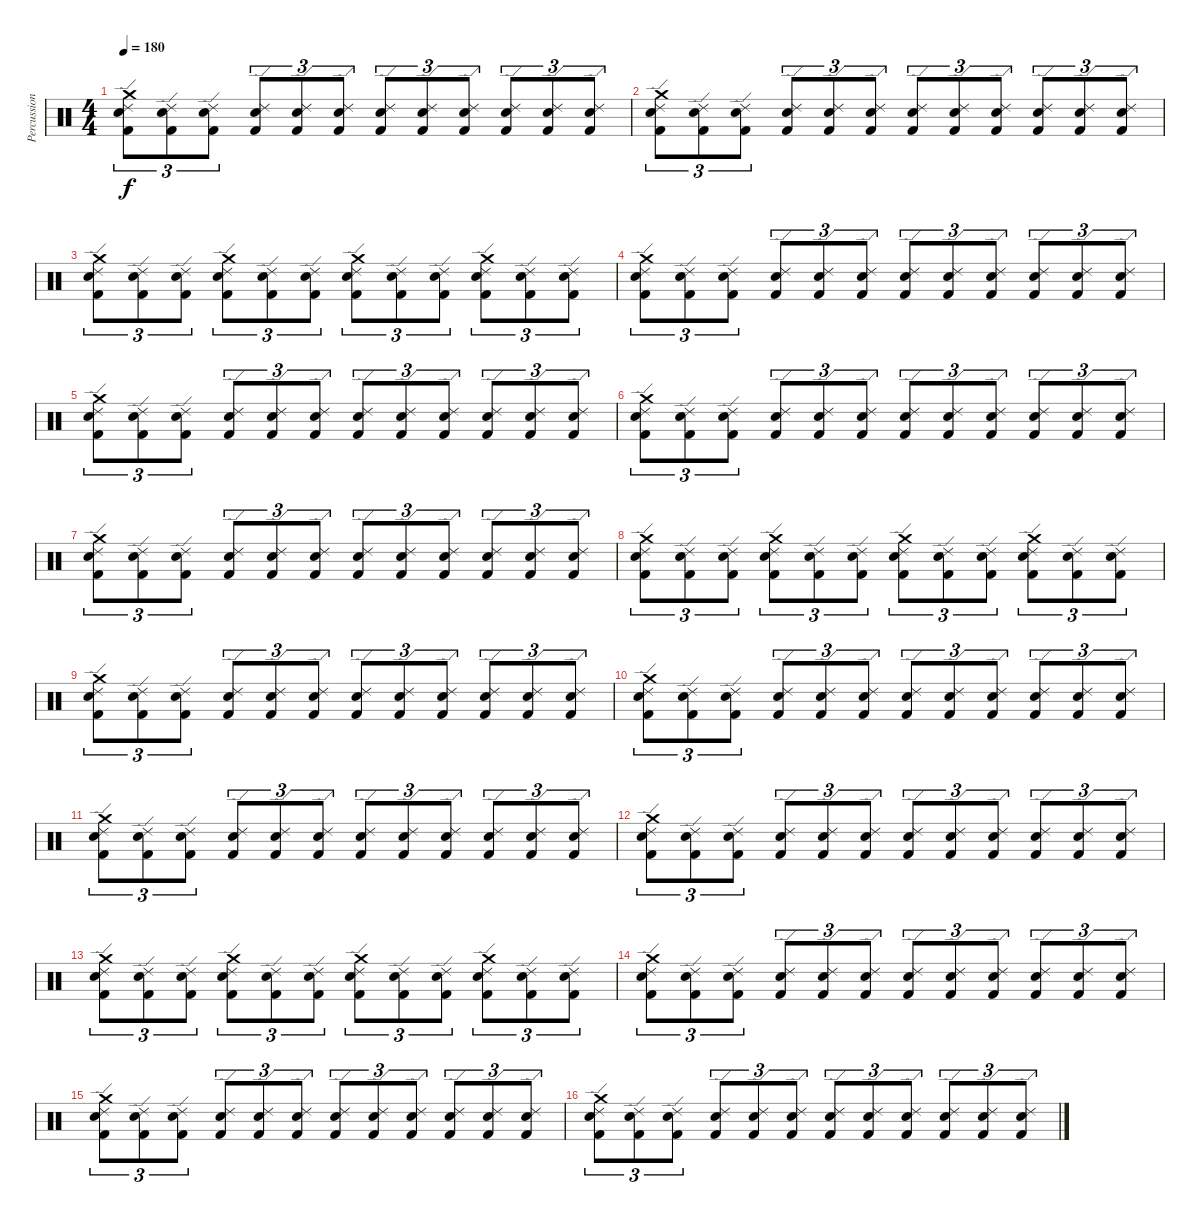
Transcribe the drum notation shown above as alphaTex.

\track ("Percussioni" "Percussion") {instrument percussion}
\staff {score}
\articulation defaults
\ts (4 4)
\tempo 180
\clef neutral
\ks c
("Crash medium (hit)" "Ride (edge) 2" "Snare (hit) 2" "Kick (hit) 2").8{tu (3 2) dy f} ("Ride (edge) 2" "Snare (hit) 2" "Kick (hit) 2").8{tu (3 2)} ("Ride (edge) 2" "Snare (hit) 2" "Kick (hit) 2").8{tu (3 2)} ("Ride (edge) 2" "Snare (hit) 2" "Kick (hit) 2").8{tu (3 2)} ("Ride (edge) 2" "Snare (hit) 2" "Kick (hit) 2").8{tu (3 2)} ("Ride (edge) 2" "Snare (hit) 2" "Kick (hit) 2").8{tu (3 2)} ("Ride (edge) 2" "Snare (hit) 2" "Kick (hit) 2").8{tu (3 2)} ("Ride (edge) 2" "Snare (hit) 2" "Kick (hit) 2").8{tu (3 2)} ("Ride (edge) 2" "Snare (hit) 2" "Kick (hit) 2").8{tu (3 2)} ("Ride (edge) 2" "Snare (hit) 2" "Kick (hit) 2").8{tu (3 2)} ("Ride (edge) 2" "Snare (hit) 2" "Kick (hit) 2").8{tu (3 2)} ("Ride (edge) 2" "Snare (hit) 2" "Kick (hit) 2").8{tu (3 2)} |
("Crash medium (hit)" "Ride (edge) 2" "Snare (hit) 2" "Kick (hit) 2").8{tu (3 2)} ("Ride (edge) 2" "Snare (hit) 2" "Kick (hit) 2").8{tu (3 2)} ("Ride (edge) 2" "Snare (hit) 2" "Kick (hit) 2").8{tu (3 2)} ("Ride (edge) 2" "Snare (hit) 2" "Kick (hit) 2").8{tu (3 2)} ("Ride (edge) 2" "Snare (hit) 2" "Kick (hit) 2").8{tu (3 2)} ("Ride (edge) 2" "Snare (hit) 2" "Kick (hit) 2").8{tu (3 2)} ("Ride (edge) 2" "Snare (hit) 2" "Kick (hit) 2").8{tu (3 2)} ("Ride (edge) 2" "Snare (hit) 2" "Kick (hit) 2").8{tu (3 2)} ("Ride (edge) 2" "Snare (hit) 2" "Kick (hit) 2").8{tu (3 2)} ("Ride (edge) 2" "Snare (hit) 2" "Kick (hit) 2").8{tu (3 2)} ("Ride (edge) 2" "Snare (hit) 2" "Kick (hit) 2").8{tu (3 2)} ("Ride (edge) 2" "Snare (hit) 2" "Kick (hit) 2").8{tu (3 2)} |
("Crash medium (hit)" "Ride (edge) 2" "Snare (hit) 2" "Kick (hit) 2").8{tu (3 2)} ("Ride (edge) 2" "Snare (hit) 2" "Kick (hit) 2").8{tu (3 2)} ("Ride (edge) 2" "Snare (hit) 2" "Kick (hit) 2").8{tu (3 2)} ("Crash medium (hit)" "Ride (edge) 2" "Snare (hit) 2" "Kick (hit) 2").8{tu (3 2)} ("Ride (edge) 2" "Snare (hit) 2" "Kick (hit) 2").8{tu (3 2)} ("Ride (edge) 2" "Snare (hit) 2" "Kick (hit) 2").8{tu (3 2)} ("Crash medium (hit)" "Ride (edge) 2" "Snare (hit) 2" "Kick (hit) 2").8{tu (3 2)} ("Ride (edge) 2" "Snare (hit) 2" "Kick (hit) 2").8{tu (3 2)} ("Ride (edge) 2" "Snare (hit) 2" "Kick (hit) 2").8{tu (3 2)} ("Crash medium (hit)" "Ride (edge) 2" "Snare (hit) 2" "Kick (hit) 2").8{tu (3 2)} ("Ride (edge) 2" "Snare (hit) 2" "Kick (hit) 2").8{tu (3 2)} ("Ride (edge) 2" "Snare (hit) 2" "Kick (hit) 2").8{tu (3 2)} |
("Crash medium (hit)" "Ride (edge) 2" "Snare (hit) 2" "Kick (hit) 2").8{tu (3 2)} ("Ride (edge) 2" "Snare (hit) 2" "Kick (hit) 2").8{tu (3 2)} ("Ride (edge) 2" "Snare (hit) 2" "Kick (hit) 2").8{tu (3 2)} ("Ride (edge) 2" "Snare (hit) 2" "Kick (hit) 2").8{tu (3 2)} ("Ride (edge) 2" "Snare (hit) 2" "Kick (hit) 2").8{tu (3 2)} ("Ride (edge) 2" "Snare (hit) 2" "Kick (hit) 2").8{tu (3 2)} ("Ride (edge) 2" "Snare (hit) 2" "Kick (hit) 2").8{tu (3 2)} ("Ride (edge) 2" "Snare (hit) 2" "Kick (hit) 2").8{tu (3 2)} ("Ride (edge) 2" "Snare (hit) 2" "Kick (hit) 2").8{tu (3 2)} ("Ride (edge) 2" "Snare (hit) 2" "Kick (hit) 2").8{tu (3 2)} ("Ride (edge) 2" "Snare (hit) 2" "Kick (hit) 2").8{tu (3 2)} ("Ride (edge) 2" "Snare (hit) 2" "Kick (hit) 2").8{tu (3 2)} |
("Crash medium (hit)" "Ride (edge) 2" "Snare (hit) 2" "Kick (hit) 2").8{tu (3 2)} ("Ride (edge) 2" "Snare (hit) 2" "Kick (hit) 2").8{tu (3 2)} ("Ride (edge) 2" "Snare (hit) 2" "Kick (hit) 2").8{tu (3 2)} ("Ride (edge) 2" "Snare (hit) 2" "Kick (hit) 2").8{tu (3 2)} ("Ride (edge) 2" "Snare (hit) 2" "Kick (hit) 2").8{tu (3 2)} ("Ride (edge) 2" "Snare (hit) 2" "Kick (hit) 2").8{tu (3 2)} ("Ride (edge) 2" "Snare (hit) 2" "Kick (hit) 2").8{tu (3 2)} ("Ride (edge) 2" "Snare (hit) 2" "Kick (hit) 2").8{tu (3 2)} ("Ride (edge) 2" "Snare (hit) 2" "Kick (hit) 2").8{tu (3 2)} ("Ride (edge) 2" "Snare (hit) 2" "Kick (hit) 2").8{tu (3 2)} ("Ride (edge) 2" "Snare (hit) 2" "Kick (hit) 2").8{tu (3 2)} ("Ride (edge) 2" "Snare (hit) 2" "Kick (hit) 2").8{tu (3 2)} |
("Crash medium (hit)" "Ride (edge) 2" "Snare (hit) 2" "Kick (hit) 2").8{tu (3 2)} ("Ride (edge) 2" "Snare (hit) 2" "Kick (hit) 2").8{tu (3 2)} ("Ride (edge) 2" "Snare (hit) 2" "Kick (hit) 2").8{tu (3 2)} ("Ride (edge) 2" "Snare (hit) 2" "Kick (hit) 2").8{tu (3 2)} ("Ride (edge) 2" "Snare (hit) 2" "Kick (hit) 2").8{tu (3 2)} ("Ride (edge) 2" "Snare (hit) 2" "Kick (hit) 2").8{tu (3 2)} ("Ride (edge) 2" "Snare (hit) 2" "Kick (hit) 2").8{tu (3 2)} ("Ride (edge) 2" "Snare (hit) 2" "Kick (hit) 2").8{tu (3 2)} ("Ride (edge) 2" "Snare (hit) 2" "Kick (hit) 2").8{tu (3 2)} ("Ride (edge) 2" "Snare (hit) 2" "Kick (hit) 2").8{tu (3 2)} ("Ride (edge) 2" "Snare (hit) 2" "Kick (hit) 2").8{tu (3 2)} ("Ride (edge) 2" "Snare (hit) 2" "Kick (hit) 2").8{tu (3 2)} |
("Crash medium (hit)" "Ride (edge) 2" "Snare (hit) 2" "Kick (hit) 2").8{tu (3 2)} ("Ride (edge) 2" "Snare (hit) 2" "Kick (hit) 2").8{tu (3 2)} ("Ride (edge) 2" "Snare (hit) 2" "Kick (hit) 2").8{tu (3 2)} ("Ride (edge) 2" "Snare (hit) 2" "Kick (hit) 2").8{tu (3 2)} ("Ride (edge) 2" "Snare (hit) 2" "Kick (hit) 2").8{tu (3 2)} ("Ride (edge) 2" "Snare (hit) 2" "Kick (hit) 2").8{tu (3 2)} ("Ride (edge) 2" "Snare (hit) 2" "Kick (hit) 2").8{tu (3 2)} ("Ride (edge) 2" "Snare (hit) 2" "Kick (hit) 2").8{tu (3 2)} ("Ride (edge) 2" "Snare (hit) 2" "Kick (hit) 2").8{tu (3 2)} ("Ride (edge) 2" "Snare (hit) 2" "Kick (hit) 2").8{tu (3 2)} ("Ride (edge) 2" "Snare (hit) 2" "Kick (hit) 2").8{tu (3 2)} ("Ride (edge) 2" "Snare (hit) 2" "Kick (hit) 2").8{tu (3 2)} |
("Crash medium (hit)" "Ride (edge) 2" "Snare (hit) 2" "Kick (hit) 2").8{tu (3 2)} ("Ride (edge) 2" "Snare (hit) 2" "Kick (hit) 2").8{tu (3 2)} ("Ride (edge) 2" "Snare (hit) 2" "Kick (hit) 2").8{tu (3 2)} ("Crash medium (hit)" "Ride (edge) 2" "Snare (hit) 2" "Kick (hit) 2").8{tu (3 2)} ("Ride (edge) 2" "Snare (hit) 2" "Kick (hit) 2").8{tu (3 2)} ("Ride (edge) 2" "Snare (hit) 2" "Kick (hit) 2").8{tu (3 2)} ("Crash medium (hit)" "Ride (edge) 2" "Snare (hit) 2" "Kick (hit) 2").8{tu (3 2)} ("Ride (edge) 2" "Snare (hit) 2" "Kick (hit) 2").8{tu (3 2)} ("Ride (edge) 2" "Snare (hit) 2" "Kick (hit) 2").8{tu (3 2)} ("Crash medium (hit)" "Ride (edge) 2" "Snare (hit) 2" "Kick (hit) 2").8{tu (3 2)} ("Ride (edge) 2" "Snare (hit) 2" "Kick (hit) 2").8{tu (3 2)} ("Ride (edge) 2" "Snare (hit) 2" "Kick (hit) 2").8{tu (3 2)} |
("Crash medium (hit)" "Ride (edge) 2" "Snare (hit) 2" "Kick (hit) 2").8{tu (3 2)} ("Ride (edge) 2" "Snare (hit) 2" "Kick (hit) 2").8{tu (3 2)} ("Ride (edge) 2" "Snare (hit) 2" "Kick (hit) 2").8{tu (3 2)} ("Ride (edge) 2" "Snare (hit) 2" "Kick (hit) 2").8{tu (3 2)} ("Ride (edge) 2" "Snare (hit) 2" "Kick (hit) 2").8{tu (3 2)} ("Ride (edge) 2" "Snare (hit) 2" "Kick (hit) 2").8{tu (3 2)} ("Ride (edge) 2" "Snare (hit) 2" "Kick (hit) 2").8{tu (3 2)} ("Ride (edge) 2" "Snare (hit) 2" "Kick (hit) 2").8{tu (3 2)} ("Ride (edge) 2" "Snare (hit) 2" "Kick (hit) 2").8{tu (3 2)} ("Ride (edge) 2" "Snare (hit) 2" "Kick (hit) 2").8{tu (3 2)} ("Ride (edge) 2" "Snare (hit) 2" "Kick (hit) 2").8{tu (3 2)} ("Ride (edge) 2" "Snare (hit) 2" "Kick (hit) 2").8{tu (3 2)} |
("Crash medium (hit)" "Ride (edge) 2" "Snare (hit) 2" "Kick (hit) 2").8{tu (3 2)} ("Ride (edge) 2" "Snare (hit) 2" "Kick (hit) 2").8{tu (3 2)} ("Ride (edge) 2" "Snare (hit) 2" "Kick (hit) 2").8{tu (3 2)} ("Ride (edge) 2" "Snare (hit) 2" "Kick (hit) 2").8{tu (3 2)} ("Ride (edge) 2" "Snare (hit) 2" "Kick (hit) 2").8{tu (3 2)} ("Ride (edge) 2" "Snare (hit) 2" "Kick (hit) 2").8{tu (3 2)} ("Ride (edge) 2" "Snare (hit) 2" "Kick (hit) 2").8{tu (3 2)} ("Ride (edge) 2" "Snare (hit) 2" "Kick (hit) 2").8{tu (3 2)} ("Ride (edge) 2" "Snare (hit) 2" "Kick (hit) 2").8{tu (3 2)} ("Ride (edge) 2" "Snare (hit) 2" "Kick (hit) 2").8{tu (3 2)} ("Ride (edge) 2" "Snare (hit) 2" "Kick (hit) 2").8{tu (3 2)} ("Ride (edge) 2" "Snare (hit) 2" "Kick (hit) 2").8{tu (3 2)} |
("Crash medium (hit)" "Ride (edge) 2" "Snare (hit) 2" "Kick (hit) 2").8{tu (3 2)} ("Ride (edge) 2" "Snare (hit) 2" "Kick (hit) 2").8{tu (3 2)} ("Ride (edge) 2" "Snare (hit) 2" "Kick (hit) 2").8{tu (3 2)} ("Ride (edge) 2" "Snare (hit) 2" "Kick (hit) 2").8{tu (3 2)} ("Ride (edge) 2" "Snare (hit) 2" "Kick (hit) 2").8{tu (3 2)} ("Ride (edge) 2" "Snare (hit) 2" "Kick (hit) 2").8{tu (3 2)} ("Ride (edge) 2" "Snare (hit) 2" "Kick (hit) 2").8{tu (3 2)} ("Ride (edge) 2" "Snare (hit) 2" "Kick (hit) 2").8{tu (3 2)} ("Ride (edge) 2" "Snare (hit) 2" "Kick (hit) 2").8{tu (3 2)} ("Ride (edge) 2" "Snare (hit) 2" "Kick (hit) 2").8{tu (3 2)} ("Ride (edge) 2" "Snare (hit) 2" "Kick (hit) 2").8{tu (3 2)} ("Ride (edge) 2" "Snare (hit) 2" "Kick (hit) 2").8{tu (3 2)} |
("Crash medium (hit)" "Ride (edge) 2" "Snare (hit) 2" "Kick (hit) 2").8{tu (3 2)} ("Ride (edge) 2" "Snare (hit) 2" "Kick (hit) 2").8{tu (3 2)} ("Ride (edge) 2" "Snare (hit) 2" "Kick (hit) 2").8{tu (3 2)} ("Ride (edge) 2" "Snare (hit) 2" "Kick (hit) 2").8{tu (3 2)} ("Ride (edge) 2" "Snare (hit) 2" "Kick (hit) 2").8{tu (3 2)} ("Ride (edge) 2" "Snare (hit) 2" "Kick (hit) 2").8{tu (3 2)} ("Ride (edge) 2" "Snare (hit) 2" "Kick (hit) 2").8{tu (3 2)} ("Ride (edge) 2" "Snare (hit) 2" "Kick (hit) 2").8{tu (3 2)} ("Ride (edge) 2" "Snare (hit) 2" "Kick (hit) 2").8{tu (3 2)} ("Ride (edge) 2" "Snare (hit) 2" "Kick (hit) 2").8{tu (3 2)} ("Ride (edge) 2" "Snare (hit) 2" "Kick (hit) 2").8{tu (3 2)} ("Ride (edge) 2" "Snare (hit) 2" "Kick (hit) 2").8{tu (3 2)} |
("Crash medium (hit)" "Ride (edge) 2" "Snare (hit) 2" "Kick (hit) 2").8{tu (3 2)} ("Ride (edge) 2" "Snare (hit) 2" "Kick (hit) 2").8{tu (3 2)} ("Ride (edge) 2" "Snare (hit) 2" "Kick (hit) 2").8{tu (3 2)} ("Crash medium (hit)" "Ride (edge) 2" "Snare (hit) 2" "Kick (hit) 2").8{tu (3 2)} ("Ride (edge) 2" "Snare (hit) 2" "Kick (hit) 2").8{tu (3 2)} ("Ride (edge) 2" "Snare (hit) 2" "Kick (hit) 2").8{tu (3 2)} ("Crash medium (hit)" "Ride (edge) 2" "Snare (hit) 2" "Kick (hit) 2").8{tu (3 2)} ("Ride (edge) 2" "Snare (hit) 2" "Kick (hit) 2").8{tu (3 2)} ("Ride (edge) 2" "Snare (hit) 2" "Kick (hit) 2").8{tu (3 2)} ("Crash medium (hit)" "Ride (edge) 2" "Snare (hit) 2" "Kick (hit) 2").8{tu (3 2)} ("Ride (edge) 2" "Snare (hit) 2" "Kick (hit) 2").8{tu (3 2)} ("Ride (edge) 2" "Snare (hit) 2" "Kick (hit) 2").8{tu (3 2)} |
("Crash medium (hit)" "Ride (edge) 2" "Snare (hit) 2" "Kick (hit) 2").8{tu (3 2)} ("Ride (edge) 2" "Snare (hit) 2" "Kick (hit) 2").8{tu (3 2)} ("Ride (edge) 2" "Snare (hit) 2" "Kick (hit) 2").8{tu (3 2)} ("Ride (edge) 2" "Snare (hit) 2" "Kick (hit) 2").8{tu (3 2)} ("Ride (edge) 2" "Snare (hit) 2" "Kick (hit) 2").8{tu (3 2)} ("Ride (edge) 2" "Snare (hit) 2" "Kick (hit) 2").8{tu (3 2)} ("Ride (edge) 2" "Snare (hit) 2" "Kick (hit) 2").8{tu (3 2)} ("Ride (edge) 2" "Snare (hit) 2" "Kick (hit) 2").8{tu (3 2)} ("Ride (edge) 2" "Snare (hit) 2" "Kick (hit) 2").8{tu (3 2)} ("Ride (edge) 2" "Snare (hit) 2" "Kick (hit) 2").8{tu (3 2)} ("Ride (edge) 2" "Snare (hit) 2" "Kick (hit) 2").8{tu (3 2)} ("Ride (edge) 2" "Snare (hit) 2" "Kick (hit) 2").8{tu (3 2)} |
("Crash medium (hit)" "Ride (edge) 2" "Snare (hit) 2" "Kick (hit) 2").8{tu (3 2)} ("Ride (edge) 2" "Snare (hit) 2" "Kick (hit) 2").8{tu (3 2)} ("Ride (edge) 2" "Snare (hit) 2" "Kick (hit) 2").8{tu (3 2)} ("Ride (edge) 2" "Snare (hit) 2" "Kick (hit) 2").8{tu (3 2)} ("Ride (edge) 2" "Snare (hit) 2" "Kick (hit) 2").8{tu (3 2)} ("Ride (edge) 2" "Snare (hit) 2" "Kick (hit) 2").8{tu (3 2)} ("Ride (edge) 2" "Snare (hit) 2" "Kick (hit) 2").8{tu (3 2)} ("Ride (edge) 2" "Snare (hit) 2" "Kick (hit) 2").8{tu (3 2)} ("Ride (edge) 2" "Snare (hit) 2" "Kick (hit) 2").8{tu (3 2)} ("Ride (edge) 2" "Snare (hit) 2" "Kick (hit) 2").8{tu (3 2)} ("Ride (edge) 2" "Snare (hit) 2" "Kick (hit) 2").8{tu (3 2)} ("Ride (edge) 2" "Snare (hit) 2" "Kick (hit) 2").8{tu (3 2)} |
("Crash medium (hit)" "Ride (edge) 2" "Snare (hit) 2" "Kick (hit) 2").8{tu (3 2)} ("Ride (edge) 2" "Snare (hit) 2" "Kick (hit) 2").8{tu (3 2)} ("Ride (edge) 2" "Snare (hit) 2" "Kick (hit) 2").8{tu (3 2)} ("Ride (edge) 2" "Snare (hit) 2" "Kick (hit) 2").8{tu (3 2)} ("Ride (edge) 2" "Snare (hit) 2" "Kick (hit) 2").8{tu (3 2)} ("Ride (edge) 2" "Snare (hit) 2" "Kick (hit) 2").8{tu (3 2)} ("Ride (edge) 2" "Snare (hit) 2" "Kick (hit) 2").8{tu (3 2)} ("Ride (edge) 2" "Snare (hit) 2" "Kick (hit) 2").8{tu (3 2)} ("Ride (edge) 2" "Snare (hit) 2" "Kick (hit) 2").8{tu (3 2)} ("Ride (edge) 2" "Snare (hit) 2" "Kick (hit) 2").8{tu (3 2)} ("Ride (edge) 2" "Snare (hit) 2" "Kick (hit) 2").8{tu (3 2)} ("Ride (edge) 2" "Snare (hit) 2" "Kick (hit) 2").8{tu (3 2)}
